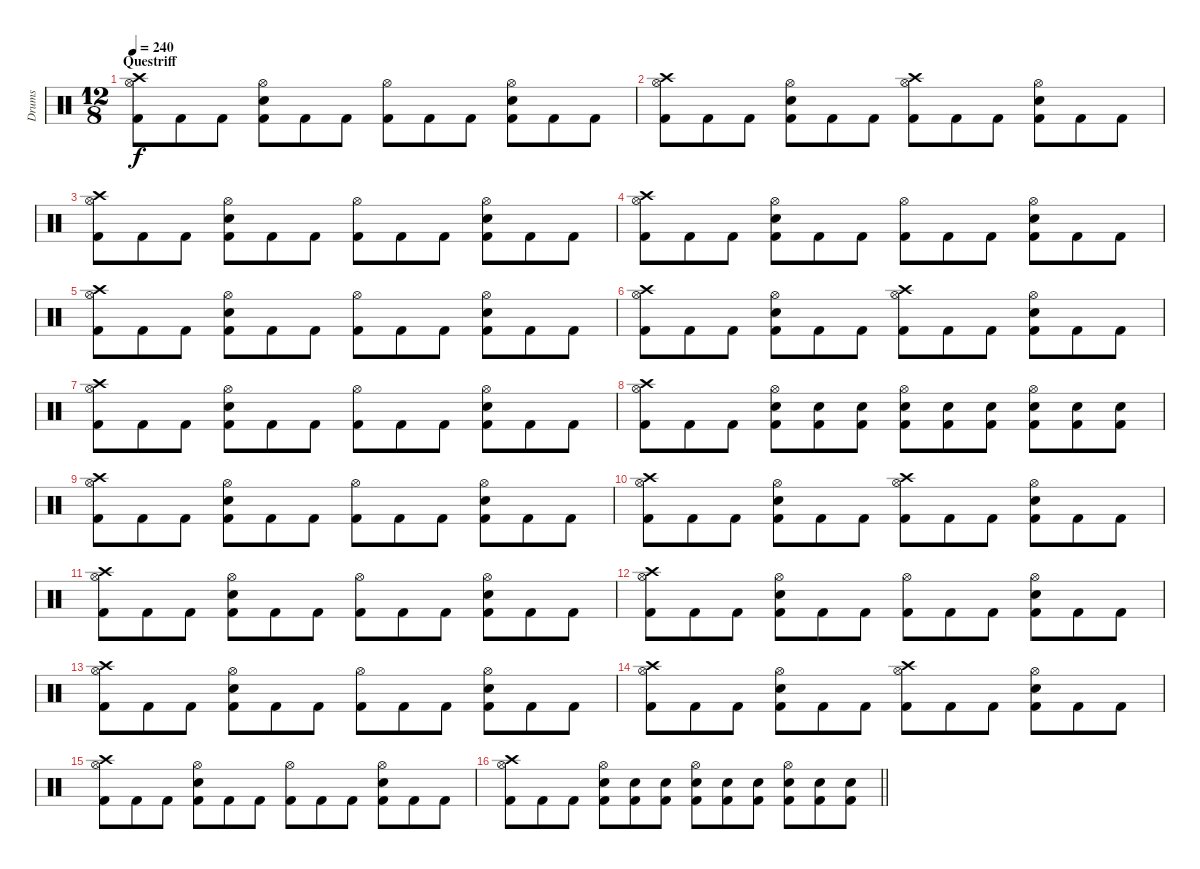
\track ("Drums" "Drums") {instrument percussion}
\staff {score}
\articulation defaults
\ts (12 8)
\section ("" "Questriff")
\tempo 240
\clef neutral
\ks c
("Crash high (hit)" "Hi-Hat (open)" "Kick (hit) 2").8{dy f} "Kick (hit) 2".8 "Kick (hit) 2".8 ("Hi-Hat (open)" "Snare (hit) 2" "Kick (hit) 2").8 "Kick (hit) 2".8 "Kick (hit) 2".8 ("Hi-Hat (open)" "Kick (hit) 2").8 "Kick (hit) 2".8 "Kick (hit) 2".8 ("Hi-Hat (open)" "Snare (hit) 2" "Kick (hit) 2").8 "Kick (hit) 2".8 "Kick (hit) 2".8 |
("Crash high (hit)" "Hi-Hat (open)" "Kick (hit) 2").8 "Kick (hit) 2".8 "Kick (hit) 2".8 ("Hi-Hat (open)" "Snare (hit) 2" "Kick (hit) 2").8 "Kick (hit) 2".8 "Kick (hit) 2".8 ("Crash high (hit)" "Hi-Hat (open)" "Kick (hit) 2").8 "Kick (hit) 2".8 "Kick (hit) 2".8 ("Hi-Hat (open)" "Snare (hit) 2" "Kick (hit) 2").8 "Kick (hit) 2".8 "Kick (hit) 2".8 |
("Crash high (hit)" "Hi-Hat (open)" "Kick (hit) 2").8 "Kick (hit) 2".8 "Kick (hit) 2".8 ("Hi-Hat (open)" "Snare (hit) 2" "Kick (hit) 2").8 "Kick (hit) 2".8 "Kick (hit) 2".8 ("Hi-Hat (open)" "Kick (hit) 2").8 "Kick (hit) 2".8 "Kick (hit) 2".8 ("Hi-Hat (open)" "Snare (hit) 2" "Kick (hit) 2").8 "Kick (hit) 2".8 "Kick (hit) 2".8 |
("Crash high (hit)" "Hi-Hat (open)" "Kick (hit) 2").8 "Kick (hit) 2".8 "Kick (hit) 2".8 ("Hi-Hat (open)" "Snare (hit) 2" "Kick (hit) 2").8 "Kick (hit) 2".8 "Kick (hit) 2".8 ("Hi-Hat (open)" "Kick (hit) 2").8 "Kick (hit) 2".8 "Kick (hit) 2".8 ("Hi-Hat (open)" "Snare (hit) 2" "Kick (hit) 2").8 "Kick (hit) 2".8 "Kick (hit) 2".8 |
("Crash high (hit)" "Hi-Hat (open)" "Kick (hit) 2").8 "Kick (hit) 2".8 "Kick (hit) 2".8 ("Hi-Hat (open)" "Snare (hit) 2" "Kick (hit) 2").8 "Kick (hit) 2".8 "Kick (hit) 2".8 ("Hi-Hat (open)" "Kick (hit) 2").8 "Kick (hit) 2".8 "Kick (hit) 2".8 ("Hi-Hat (open)" "Snare (hit) 2" "Kick (hit) 2").8 "Kick (hit) 2".8 "Kick (hit) 2".8 |
("Crash high (hit)" "Hi-Hat (open)" "Kick (hit) 2").8 "Kick (hit) 2".8 "Kick (hit) 2".8 ("Hi-Hat (open)" "Snare (hit) 2" "Kick (hit) 2").8 "Kick (hit) 2".8 "Kick (hit) 2".8 ("Crash high (hit)" "Hi-Hat (open)" "Kick (hit) 2").8 "Kick (hit) 2".8 "Kick (hit) 2".8 ("Hi-Hat (open)" "Snare (hit) 2" "Kick (hit) 2").8 "Kick (hit) 2".8 "Kick (hit) 2".8 |
("Crash high (hit)" "Hi-Hat (open)" "Kick (hit) 2").8 "Kick (hit) 2".8 "Kick (hit) 2".8 ("Hi-Hat (open)" "Snare (hit) 2" "Kick (hit) 2").8 "Kick (hit) 2".8 "Kick (hit) 2".8 ("Hi-Hat (open)" "Kick (hit) 2").8 "Kick (hit) 2".8 "Kick (hit) 2".8 ("Hi-Hat (open)" "Snare (hit) 2" "Kick (hit) 2").8 "Kick (hit) 2".8 "Kick (hit) 2".8 |
("Crash high (hit)" "Hi-Hat (open)" "Kick (hit) 2").8 "Kick (hit) 2".8 "Kick (hit) 2".8 ("Hi-Hat (open)" "Snare (hit) 2" "Kick (hit) 2").8 ("Snare (hit) 2" "Kick (hit) 2").8 ("Snare (hit) 2" "Kick (hit) 2").8 ("Hi-Hat (open)" "Snare (hit) 2" "Kick (hit) 2").8 ("Snare (hit) 2" "Kick (hit) 2").8 ("Snare (hit) 2" "Kick (hit) 2").8 ("Hi-Hat (open)" "Snare (hit) 2" "Kick (hit) 2").8 ("Snare (hit) 2" "Kick (hit) 2").8 ("Snare (hit) 2" "Kick (hit) 2").8 |
("Crash high (hit)" "Hi-Hat (open)" "Kick (hit) 2").8 "Kick (hit) 2".8 "Kick (hit) 2".8 ("Hi-Hat (open)" "Snare (hit) 2" "Kick (hit) 2").8 "Kick (hit) 2".8 "Kick (hit) 2".8 ("Hi-Hat (open)" "Kick (hit) 2").8 "Kick (hit) 2".8 "Kick (hit) 2".8 ("Hi-Hat (open)" "Snare (hit) 2" "Kick (hit) 2").8 "Kick (hit) 2".8 "Kick (hit) 2".8 |
("Crash high (hit)" "Hi-Hat (open)" "Kick (hit) 2").8 "Kick (hit) 2".8 "Kick (hit) 2".8 ("Hi-Hat (open)" "Snare (hit) 2" "Kick (hit) 2").8 "Kick (hit) 2".8 "Kick (hit) 2".8 ("Crash high (hit)" "Hi-Hat (open)" "Kick (hit) 2").8 "Kick (hit) 2".8 "Kick (hit) 2".8 ("Hi-Hat (open)" "Snare (hit) 2" "Kick (hit) 2").8 "Kick (hit) 2".8 "Kick (hit) 2".8 |
("Crash high (hit)" "Hi-Hat (open)" "Kick (hit) 2").8 "Kick (hit) 2".8 "Kick (hit) 2".8 ("Hi-Hat (open)" "Snare (hit) 2" "Kick (hit) 2").8 "Kick (hit) 2".8 "Kick (hit) 2".8 ("Hi-Hat (open)" "Kick (hit) 2").8 "Kick (hit) 2".8 "Kick (hit) 2".8 ("Hi-Hat (open)" "Snare (hit) 2" "Kick (hit) 2").8 "Kick (hit) 2".8 "Kick (hit) 2".8 |
("Crash high (hit)" "Hi-Hat (open)" "Kick (hit) 2").8 "Kick (hit) 2".8 "Kick (hit) 2".8 ("Hi-Hat (open)" "Snare (hit) 2" "Kick (hit) 2").8 "Kick (hit) 2".8 "Kick (hit) 2".8 ("Hi-Hat (open)" "Kick (hit) 2").8 "Kick (hit) 2".8 "Kick (hit) 2".8 ("Hi-Hat (open)" "Snare (hit) 2" "Kick (hit) 2").8 "Kick (hit) 2".8 "Kick (hit) 2".8 |
("Crash high (hit)" "Hi-Hat (open)" "Kick (hit) 2").8 "Kick (hit) 2".8 "Kick (hit) 2".8 ("Hi-Hat (open)" "Snare (hit) 2" "Kick (hit) 2").8 "Kick (hit) 2".8 "Kick (hit) 2".8 ("Hi-Hat (open)" "Kick (hit) 2").8 "Kick (hit) 2".8 "Kick (hit) 2".8 ("Hi-Hat (open)" "Snare (hit) 2" "Kick (hit) 2").8 "Kick (hit) 2".8 "Kick (hit) 2".8 |
("Crash high (hit)" "Hi-Hat (open)" "Kick (hit) 2").8 "Kick (hit) 2".8 "Kick (hit) 2".8 ("Hi-Hat (open)" "Snare (hit) 2" "Kick (hit) 2").8 "Kick (hit) 2".8 "Kick (hit) 2".8 ("Crash high (hit)" "Hi-Hat (open)" "Kick (hit) 2").8 "Kick (hit) 2".8 "Kick (hit) 2".8 ("Hi-Hat (open)" "Snare (hit) 2" "Kick (hit) 2").8 "Kick (hit) 2".8 "Kick (hit) 2".8 |
("Crash high (hit)" "Hi-Hat (open)" "Kick (hit) 2").8 "Kick (hit) 2".8 "Kick (hit) 2".8 ("Hi-Hat (open)" "Snare (hit) 2" "Kick (hit) 2").8 "Kick (hit) 2".8 "Kick (hit) 2".8 ("Hi-Hat (open)" "Kick (hit) 2").8 "Kick (hit) 2".8 "Kick (hit) 2".8 ("Hi-Hat (open)" "Snare (hit) 2" "Kick (hit) 2").8 "Kick (hit) 2".8 "Kick (hit) 2".8 |
\barLineRight lightlight
("Crash high (hit)" "Hi-Hat (open)" "Kick (hit) 2").8 "Kick (hit) 2".8 "Kick (hit) 2".8 ("Hi-Hat (open)" "Snare (hit) 2" "Kick (hit) 2").8 ("Snare (hit) 2" "Kick (hit) 2").8 ("Snare (hit) 2" "Kick (hit) 2").8 ("Hi-Hat (open)" "Snare (hit) 2" "Kick (hit) 2").8 ("Snare (hit) 2" "Kick (hit) 2").8 ("Snare (hit) 2" "Kick (hit) 2").8 ("Hi-Hat (open)" "Snare (hit) 2" "Kick (hit) 2").8 ("Snare (hit) 2" "Kick (hit) 2").8 ("Snare (hit) 2" "Kick (hit) 2").8
